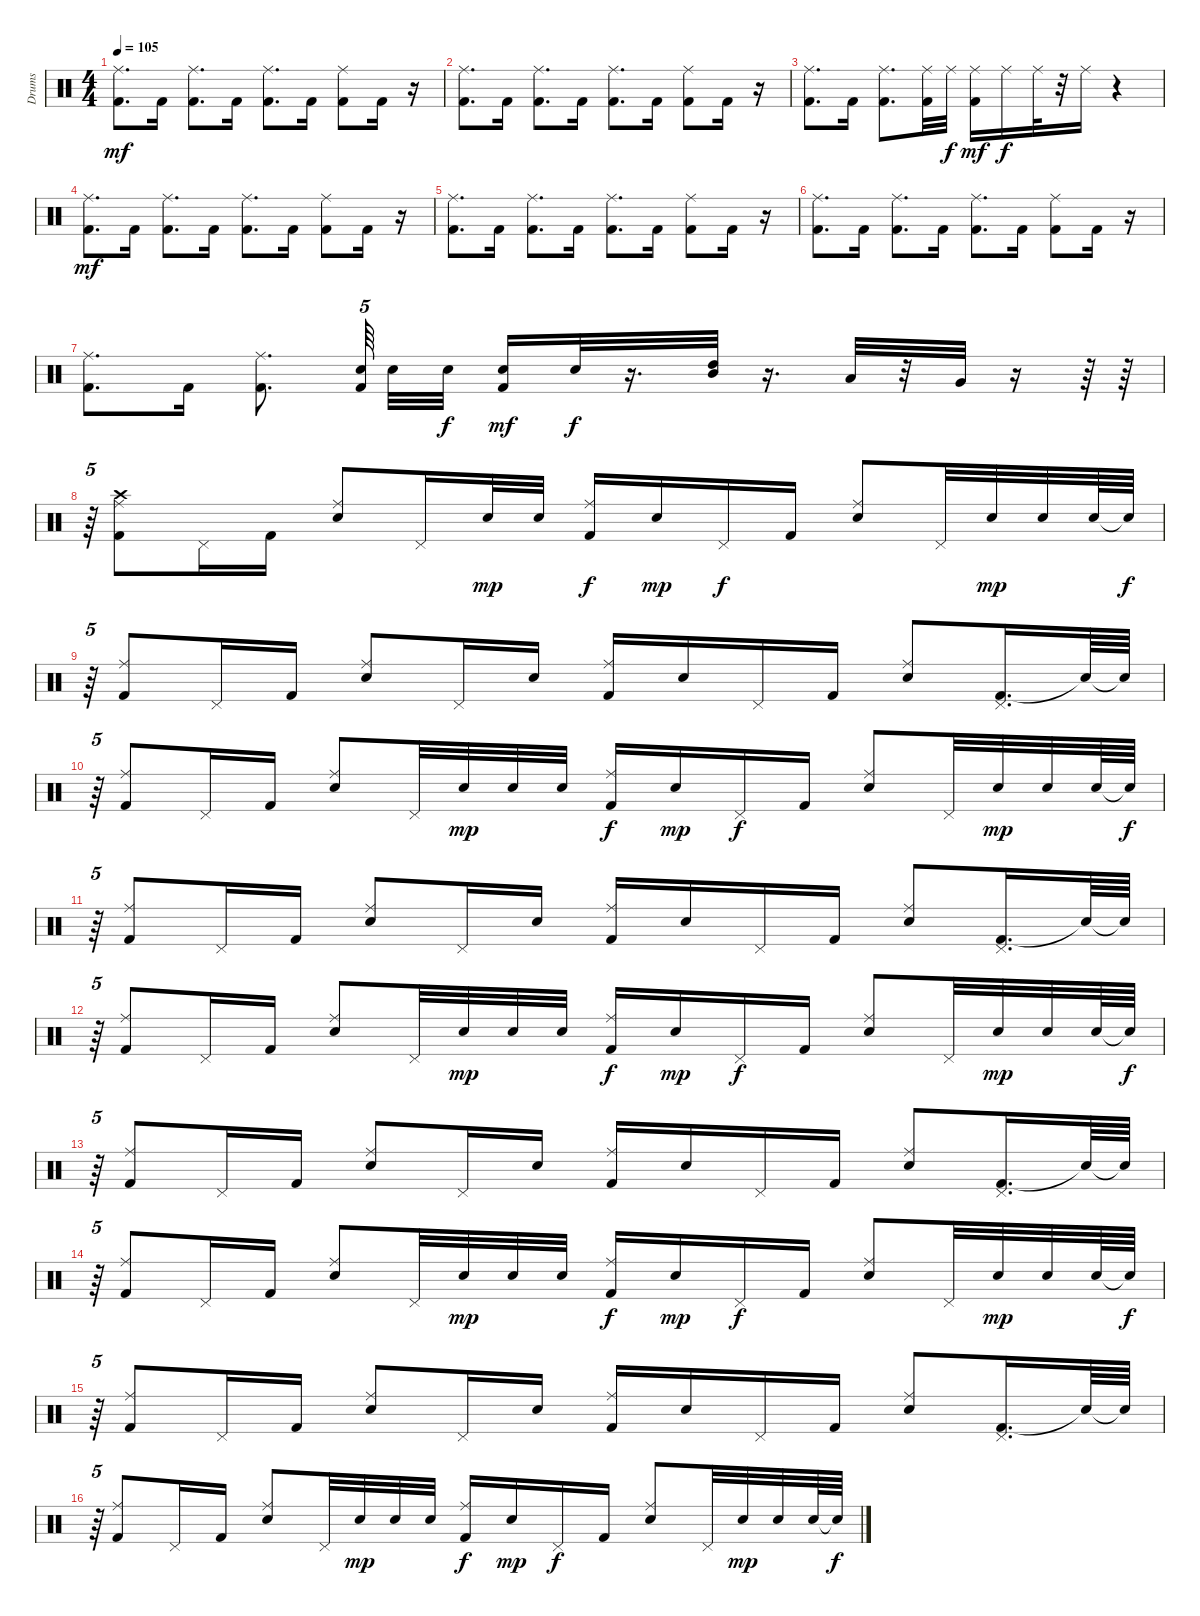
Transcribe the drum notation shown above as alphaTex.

\track ("Drums" "Drums") {instrument percussion}
\staff {score}
\articulation defaults
\ts (4 4)
\tempo 105
\clef neutral
\ks c
("Kick (hit) 2" "Ride (middle)").8{d dy mf} "Kick (hit) 2".16 ("Kick (hit) 2" "Ride (middle)").8{d} "Kick (hit) 2".16 ("Kick (hit) 2" "Ride (middle)").8{d} "Kick (hit) 2".16 ("Kick (hit) 2" "Ride (middle)").8 "Kick (hit) 2".16 r.16 |
("Kick (hit) 2" "Ride (middle)").8{d} "Kick (hit) 2".16 ("Kick (hit) 2" "Ride (middle)").8{d} "Kick (hit) 2".16 ("Kick (hit) 2" "Ride (middle)").8{d} "Kick (hit) 2".16 ("Kick (hit) 2" "Ride (middle)").8 "Kick (hit) 2".16 r.16 |
("Kick (hit) 2" "Ride (middle)").8{d} "Kick (hit) 2".16 ("Kick (hit) 2" "Ride (middle)").8{d} ("Kick (hit) 2" "Ride (middle)").32 "Ride (middle)".32{dy f} ("Kick (hit) 2" "Ride (middle)").16{dy mf} "Ride (middle)".16{dy f} "Ride (middle)".32 r.32 "Ride (middle)".16 r.4 |
("Kick (hit) 2" "Ride (middle)").8{d dy mf} "Kick (hit) 2".16 ("Kick (hit) 2" "Ride (middle)").8{d} "Kick (hit) 2".16 ("Kick (hit) 2" "Ride (middle)").8{d} "Kick (hit) 2".16 ("Kick (hit) 2" "Ride (middle)").8 "Kick (hit) 2".16 r.16 |
("Kick (hit) 2" "Ride (middle)").8{d} "Kick (hit) 2".16 ("Kick (hit) 2" "Ride (middle)").8{d} "Kick (hit) 2".16 ("Kick (hit) 2" "Ride (middle)").8{d} "Kick (hit) 2".16 ("Kick (hit) 2" "Ride (middle)").8 "Kick (hit) 2".16 r.16 |
("Kick (hit) 2" "Ride (middle)").8{d} "Kick (hit) 2".16 ("Kick (hit) 2" "Ride (middle)").8{d} "Kick (hit) 2".16 ("Kick (hit) 2" "Ride (middle)").8{d} "Kick (hit) 2".16 ("Kick (hit) 2" "Ride (middle)").8 "Kick (hit) 2".16 r.16 |
("Kick (hit) 2" "Ride (middle)").8{d} "Kick (hit) 2".16 ("Kick (hit) 2" "Ride (middle)").8{d} ("Electric Snare (hit)" "Kick (hit) 2").64{tu (5 4)} "Electric Snare (hit)".32 "Electric Snare (hit)".32{dy f} ("Kick (hit) 2" "Electric Snare (hit)").16{dy mf} "Electric Snare (hit)".32{dy f} r.16{d} ("High Tom (hit)" "Mid Tom (hit)").32 r.16{d} "Low Tom (hit)".32 r.32 "Very Low Tom (hit)".32 r.16 r.64 r.64 |
r.64{tu (5 4)} ("Kick (hit) 2" "Ride (middle)" "Crash high (hit)").8 "Pedal Hi-Hat (hit)".16 "Kick (hit) 2".16 ("Electric Snare (hit)" "Ride (middle)").8 "Pedal Hi-Hat (hit)".16 "Electric Snare (hit)".32{dy mp} "Electric Snare (hit)".32 ("Kick (hit) 2" "Ride (middle)").16{dy f} "Electric Snare (hit)".16{dy mp} "Pedal Hi-Hat (hit)".16{dy f} "Kick (hit) 2".16 ("Electric Snare (hit)" "Ride (middle)").8 "Pedal Hi-Hat (hit)".32 "Electric Snare (hit)".32{dy mp} "Electric Snare (hit)".32 "Electric Snare (hit)".64 "Snare (hit)"{t}.64{dy f} |
r.64{tu (5 4)} ("Kick (hit) 2" "Ride (middle)").8 "Pedal Hi-Hat (hit)".16 "Kick (hit) 2".16 ("Electric Snare (hit)" "Ride (middle)").8 "Pedal Hi-Hat (hit)".16 "Electric Snare (hit)".16 ("Kick (hit) 2" "Ride (middle)").16 "Electric Snare (hit)".16 "Pedal Hi-Hat (hit)".16 "Kick (hit) 2".16 ("Electric Snare (hit)" "Ride (middle)").8 ("Kick (hit) 2" "Pedal Hi-Hat (hit)").16{d} "Snare (hit)"{t}.64 "Snare (hit)"{t}.64 |
r.64{tu (5 4)} ("Kick (hit) 2" "Ride (middle)").8 "Pedal Hi-Hat (hit)".16 "Kick (hit) 2".16 ("Electric Snare (hit)" "Ride (middle)").8 "Pedal Hi-Hat (hit)".32 "Electric Snare (hit)".32{dy mp} "Electric Snare (hit)".32 "Electric Snare (hit)".32 ("Kick (hit) 2" "Ride (middle)").16{dy f} "Electric Snare (hit)".16{dy mp} "Pedal Hi-Hat (hit)".16{dy f} "Kick (hit) 2".16 ("Electric Snare (hit)" "Ride (middle)").8 "Pedal Hi-Hat (hit)".32 "Electric Snare (hit)".32{dy mp} "Electric Snare (hit)".32 "Electric Snare (hit)".64 "Snare (hit)"{t}.64{dy f} |
r.64{tu (5 4)} ("Kick (hit) 2" "Ride (middle)").8 "Pedal Hi-Hat (hit)".16 "Kick (hit) 2".16 ("Electric Snare (hit)" "Ride (middle)").8 "Pedal Hi-Hat (hit)".16 "Electric Snare (hit)".16 ("Kick (hit) 2" "Ride (middle)").16 "Electric Snare (hit)".16 "Pedal Hi-Hat (hit)".16 "Kick (hit) 2".16 ("Electric Snare (hit)" "Ride (middle)").8 ("Kick (hit) 2" "Pedal Hi-Hat (hit)").16{d} "Snare (hit)"{t}.64 "Snare (hit)"{t}.64 |
r.64{tu (5 4)} ("Kick (hit) 2" "Ride (middle)").8 "Pedal Hi-Hat (hit)".16 "Kick (hit) 2".16 ("Electric Snare (hit)" "Ride (middle)").8 "Pedal Hi-Hat (hit)".32 "Electric Snare (hit)".32{dy mp} "Electric Snare (hit)".32 "Electric Snare (hit)".32 ("Kick (hit) 2" "Ride (middle)").16{dy f} "Electric Snare (hit)".16{dy mp} "Pedal Hi-Hat (hit)".16{dy f} "Kick (hit) 2".16 ("Electric Snare (hit)" "Ride (middle)").8 "Pedal Hi-Hat (hit)".32 "Electric Snare (hit)".32{dy mp} "Electric Snare (hit)".32 "Electric Snare (hit)".64 "Snare (hit)"{t}.64{dy f} |
r.64{tu (5 4)} ("Kick (hit) 2" "Ride (middle)").8 "Pedal Hi-Hat (hit)".16 "Kick (hit) 2".16 ("Electric Snare (hit)" "Ride (middle)").8 "Pedal Hi-Hat (hit)".16 "Electric Snare (hit)".16 ("Kick (hit) 2" "Ride (middle)").16 "Electric Snare (hit)".16 "Pedal Hi-Hat (hit)".16 "Kick (hit) 2".16 ("Electric Snare (hit)" "Ride (middle)").8 ("Kick (hit) 2" "Pedal Hi-Hat (hit)").16{d} "Snare (hit)"{t}.64 "Snare (hit)"{t}.64 |
r.64{tu (5 4)} ("Kick (hit) 2" "Ride (middle)").8 "Pedal Hi-Hat (hit)".16 "Kick (hit) 2".16 ("Electric Snare (hit)" "Ride (middle)").8 "Pedal Hi-Hat (hit)".32 "Electric Snare (hit)".32{dy mp} "Electric Snare (hit)".32 "Electric Snare (hit)".32 ("Kick (hit) 2" "Ride (middle)").16{dy f} "Electric Snare (hit)".16{dy mp} "Pedal Hi-Hat (hit)".16{dy f} "Kick (hit) 2".16 ("Electric Snare (hit)" "Ride (middle)").8 "Pedal Hi-Hat (hit)".32 "Electric Snare (hit)".32{dy mp} "Electric Snare (hit)".32 "Electric Snare (hit)".64 "Snare (hit)"{t}.64{dy f} |
r.64{tu (5 4)} ("Kick (hit) 2" "Ride (middle)").8 "Pedal Hi-Hat (hit)".16 "Kick (hit) 2".16 ("Electric Snare (hit)" "Ride (middle)").8 "Pedal Hi-Hat (hit)".16 "Electric Snare (hit)".16 ("Kick (hit) 2" "Ride (middle)").16 "Electric Snare (hit)".16 "Pedal Hi-Hat (hit)".16 "Kick (hit) 2".16 ("Electric Snare (hit)" "Ride (middle)").8 ("Kick (hit) 2" "Pedal Hi-Hat (hit)").16{d} "Snare (hit)"{t}.64 "Snare (hit)"{t}.64 |
r.64{tu (5 4)} ("Kick (hit) 2" "Ride (middle)").8 "Pedal Hi-Hat (hit)".16 "Kick (hit) 2".16 ("Electric Snare (hit)" "Ride (middle)").8 "Pedal Hi-Hat (hit)".32 "Electric Snare (hit)".32{dy mp} "Electric Snare (hit)".32 "Electric Snare (hit)".32 ("Kick (hit) 2" "Ride (middle)").16{dy f} "Electric Snare (hit)".16{dy mp} "Pedal Hi-Hat (hit)".16{dy f} "Kick (hit) 2".16 ("Electric Snare (hit)" "Ride (middle)").8 "Pedal Hi-Hat (hit)".32 "Electric Snare (hit)".32{dy mp} "Electric Snare (hit)".32 "Electric Snare (hit)".64 "Snare (hit)"{t}.64{dy f}
